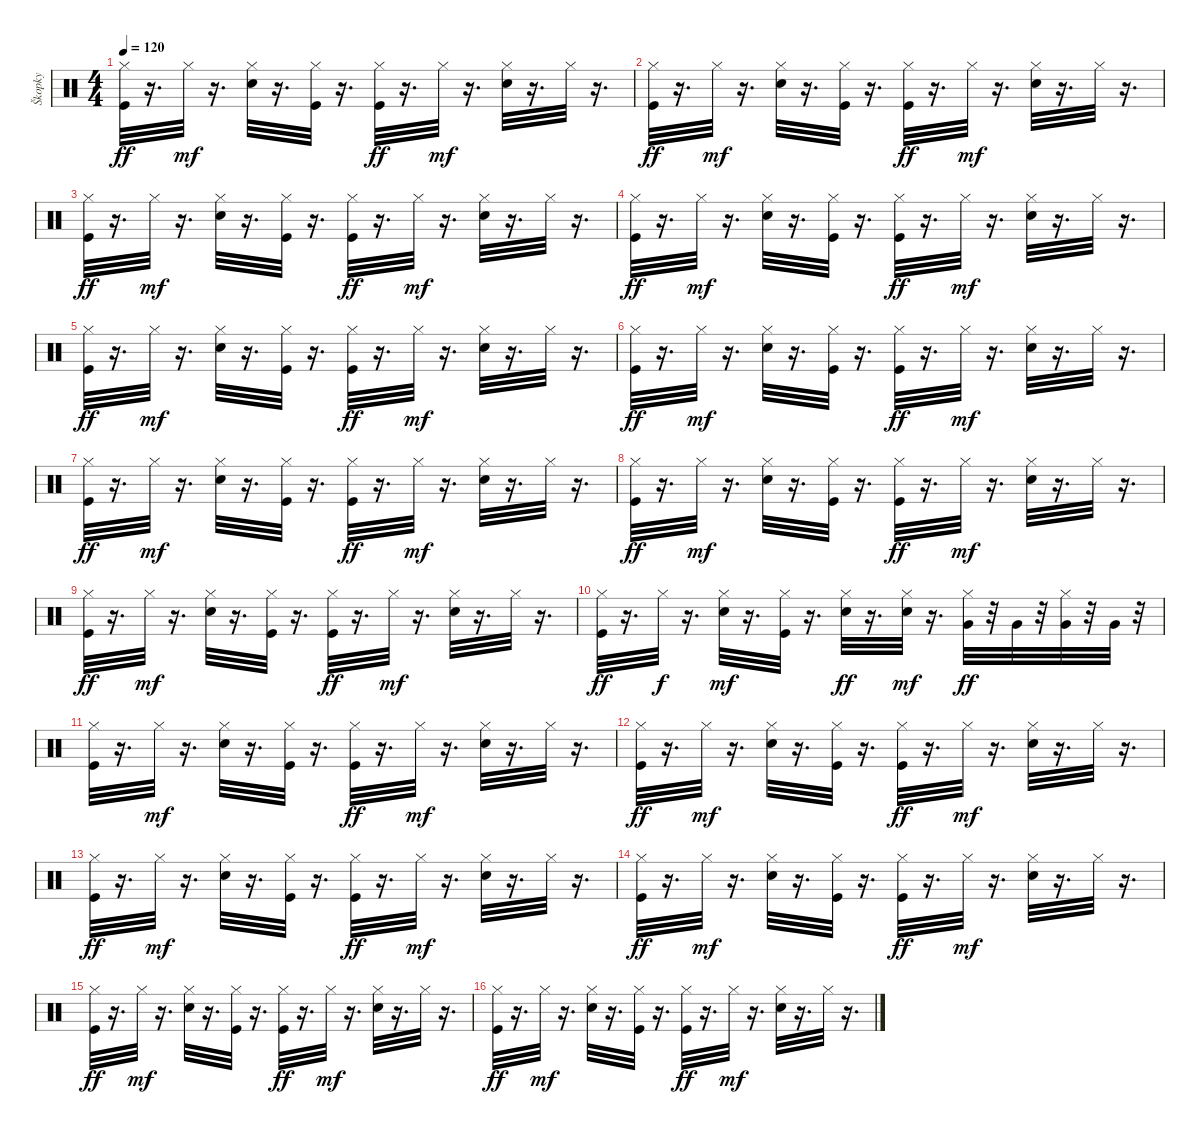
\track ("Škopky" "Škopky") {instrument percussion}
\staff {score}
\articulation defaults
\ts (4 4)
\tempo 120
\clef neutral
\ks c
("Kick (hit)" "Hi-Hat (closed)").32{dy ff} r.16{d} "Hi-Hat (closed)".32{dy mf} r.16{d} ("Snare (hit) 2" "Hi-Hat (closed)").32 r.16{d} ("Kick (hit)" "Hi-Hat (closed)").32 r.16{d} ("Kick (hit)" "Hi-Hat (closed)").32{dy ff} r.16{d} "Hi-Hat (closed)".32{dy mf} r.16{d} ("Snare (hit) 2" "Hi-Hat (closed)").32 r.16{d} "Hi-Hat (closed)".32 r.16{d} |
("Kick (hit)" "Hi-Hat (closed)").32{dy ff} r.16{d} "Hi-Hat (closed)".32{dy mf} r.16{d} ("Snare (hit) 2" "Hi-Hat (closed)").32 r.16{d} ("Kick (hit)" "Hi-Hat (closed)").32 r.16{d} ("Kick (hit)" "Hi-Hat (closed)").32{dy ff} r.16{d} "Hi-Hat (closed)".32{dy mf} r.16{d} ("Snare (hit) 2" "Hi-Hat (closed)").32 r.16{d} "Hi-Hat (closed)".32 r.16{d} |
("Kick (hit)" "Hi-Hat (closed)").32{dy ff} r.16{d} "Hi-Hat (closed)".32{dy mf} r.16{d} ("Snare (hit) 2" "Hi-Hat (closed)").32 r.16{d} ("Kick (hit)" "Hi-Hat (closed)").32 r.16{d} ("Kick (hit)" "Hi-Hat (closed)").32{dy ff} r.16{d} "Hi-Hat (closed)".32{dy mf} r.16{d} ("Snare (hit) 2" "Hi-Hat (closed)").32 r.16{d} "Hi-Hat (closed)".32 r.16{d} |
("Kick (hit)" "Hi-Hat (closed)").32{dy ff} r.16{d} "Hi-Hat (closed)".32{dy mf} r.16{d} ("Snare (hit) 2" "Hi-Hat (closed)").32 r.16{d} ("Kick (hit)" "Hi-Hat (closed)").32 r.16{d} ("Kick (hit)" "Hi-Hat (closed)").32{dy ff} r.16{d} "Hi-Hat (closed)".32{dy mf} r.16{d} ("Snare (hit) 2" "Hi-Hat (closed)").32 r.16{d} "Hi-Hat (closed)".32 r.16{d} |
("Kick (hit)" "Hi-Hat (closed)").32{dy ff} r.16{d} "Hi-Hat (closed)".32{dy mf} r.16{d} ("Snare (hit) 2" "Hi-Hat (closed)").32 r.16{d} ("Kick (hit)" "Hi-Hat (closed)").32 r.16{d} ("Kick (hit)" "Hi-Hat (closed)").32{dy ff} r.16{d} "Hi-Hat (closed)".32{dy mf} r.16{d} ("Snare (hit) 2" "Hi-Hat (closed)").32 r.16{d} "Hi-Hat (closed)".32 r.16{d} |
("Kick (hit)" "Hi-Hat (closed)").32{dy ff} r.16{d} "Hi-Hat (closed)".32{dy mf} r.16{d} ("Snare (hit) 2" "Hi-Hat (closed)").32 r.16{d} ("Kick (hit)" "Hi-Hat (closed)").32 r.16{d} ("Kick (hit)" "Hi-Hat (closed)").32{dy ff} r.16{d} "Hi-Hat (closed)".32{dy mf} r.16{d} ("Snare (hit) 2" "Hi-Hat (closed)").32 r.16{d} "Hi-Hat (closed)".32 r.16{d} |
("Kick (hit)" "Hi-Hat (closed)").32{dy ff} r.16{d} "Hi-Hat (closed)".32{dy mf} r.16{d} ("Snare (hit) 2" "Hi-Hat (closed)").32 r.16{d} ("Kick (hit)" "Hi-Hat (closed)").32 r.16{d} ("Kick (hit)" "Hi-Hat (closed)").32{dy ff} r.16{d} "Hi-Hat (closed)".32{dy mf} r.16{d} ("Snare (hit) 2" "Hi-Hat (closed)").32 r.16{d} "Hi-Hat (closed)".32 r.16{d} |
("Kick (hit)" "Hi-Hat (closed)").32{dy ff} r.16{d} "Hi-Hat (closed)".32{dy mf} r.16{d} ("Snare (hit) 2" "Hi-Hat (closed)").32 r.16{d} ("Kick (hit)" "Hi-Hat (closed)").32 r.16{d} ("Kick (hit)" "Hi-Hat (closed)").32{dy ff} r.16{d} "Hi-Hat (closed)".32{dy mf} r.16{d} ("Snare (hit) 2" "Hi-Hat (closed)").32 r.16{d} "Hi-Hat (closed)".32 r.16{d} |
("Kick (hit)" "Hi-Hat (closed)").32{dy ff} r.16{d} "Hi-Hat (closed)".32{dy mf} r.16{d} ("Snare (hit) 2" "Hi-Hat (closed)").32 r.16{d} ("Kick (hit)" "Hi-Hat (closed)").32 r.16{d} ("Kick (hit)" "Hi-Hat (closed)").32{dy ff} r.16{d} "Hi-Hat (closed)".32{dy mf} r.16{d} ("Snare (hit) 2" "Hi-Hat (closed)").32 r.16{d} "Hi-Hat (closed)".32 r.16{d} |
("Kick (hit)" "Hi-Hat (closed)").32{dy ff} r.16{d} "Hi-Hat (closed)".32{dy f} r.16{d} ("Snare (hit) 2" "Hi-Hat (closed)").32{dy mf} r.16{d} ("Kick (hit)" "Hi-Hat (closed)").32 r.16{d} ("Snare (hit) 2" "Hi-Hat (closed)").32{dy ff} r.16{d} ("Snare (hit) 2" "Hi-Hat (closed)").32{dy mf} r.16{d} ("Hi-Hat (closed)" "Very Low Tom (hit)").32{dy ff} r.32 "Very Low Tom (hit)".32 r.32 ("Hi-Hat (closed)" "Very Low Tom (hit)").32 r.32 "Very Low Tom (hit)".32 r.32 |
("Kick (hit)" "Hi-Hat (closed)").32 r.16{d} "Hi-Hat (closed)".32{dy mf} r.16{d} ("Snare (hit) 2" "Hi-Hat (closed)").32 r.16{d} ("Kick (hit)" "Hi-Hat (closed)").32 r.16{d} ("Kick (hit)" "Hi-Hat (closed)").32{dy ff} r.16{d} "Hi-Hat (closed)".32{dy mf} r.16{d} ("Snare (hit) 2" "Hi-Hat (closed)").32 r.16{d} "Hi-Hat (closed)".32 r.16{d} |
("Kick (hit)" "Hi-Hat (closed)").32{dy ff} r.16{d} "Hi-Hat (closed)".32{dy mf} r.16{d} ("Snare (hit) 2" "Hi-Hat (closed)").32 r.16{d} ("Kick (hit)" "Hi-Hat (closed)").32 r.16{d} ("Kick (hit)" "Hi-Hat (closed)").32{dy ff} r.16{d} "Hi-Hat (closed)".32{dy mf} r.16{d} ("Snare (hit) 2" "Hi-Hat (closed)").32 r.16{d} "Hi-Hat (closed)".32 r.16{d} |
("Kick (hit)" "Hi-Hat (closed)").32{dy ff} r.16{d} "Hi-Hat (closed)".32{dy mf} r.16{d} ("Snare (hit) 2" "Hi-Hat (closed)").32 r.16{d} ("Kick (hit)" "Hi-Hat (closed)").32 r.16{d} ("Kick (hit)" "Hi-Hat (closed)").32{dy ff} r.16{d} "Hi-Hat (closed)".32{dy mf} r.16{d} ("Snare (hit) 2" "Hi-Hat (closed)").32 r.16{d} "Hi-Hat (closed)".32 r.16{d} |
("Kick (hit)" "Hi-Hat (closed)").32{dy ff} r.16{d} "Hi-Hat (closed)".32{dy mf} r.16{d} ("Snare (hit) 2" "Hi-Hat (closed)").32 r.16{d} ("Kick (hit)" "Hi-Hat (closed)").32 r.16{d} ("Kick (hit)" "Hi-Hat (closed)").32{dy ff} r.16{d} "Hi-Hat (closed)".32{dy mf} r.16{d} ("Snare (hit) 2" "Hi-Hat (closed)").32 r.16{d} "Hi-Hat (closed)".32 r.16{d} |
("Kick (hit)" "Hi-Hat (closed)").32{dy ff} r.16{d} "Hi-Hat (closed)".32{dy mf} r.16{d} ("Snare (hit) 2" "Hi-Hat (closed)").32 r.16{d} ("Kick (hit)" "Hi-Hat (closed)").32 r.16{d} ("Kick (hit)" "Hi-Hat (closed)").32{dy ff} r.16{d} "Hi-Hat (closed)".32{dy mf} r.16{d} ("Snare (hit) 2" "Hi-Hat (closed)").32 r.16{d} "Hi-Hat (closed)".32 r.16{d} |
("Kick (hit)" "Hi-Hat (closed)").32{dy ff} r.16{d} "Hi-Hat (closed)".32{dy mf} r.16{d} ("Snare (hit) 2" "Hi-Hat (closed)").32 r.16{d} ("Kick (hit)" "Hi-Hat (closed)").32 r.16{d} ("Kick (hit)" "Hi-Hat (closed)").32{dy ff} r.16{d} "Hi-Hat (closed)".32{dy mf} r.16{d} ("Snare (hit) 2" "Hi-Hat (closed)").32 r.16{d} "Hi-Hat (closed)".32 r.16{d}
